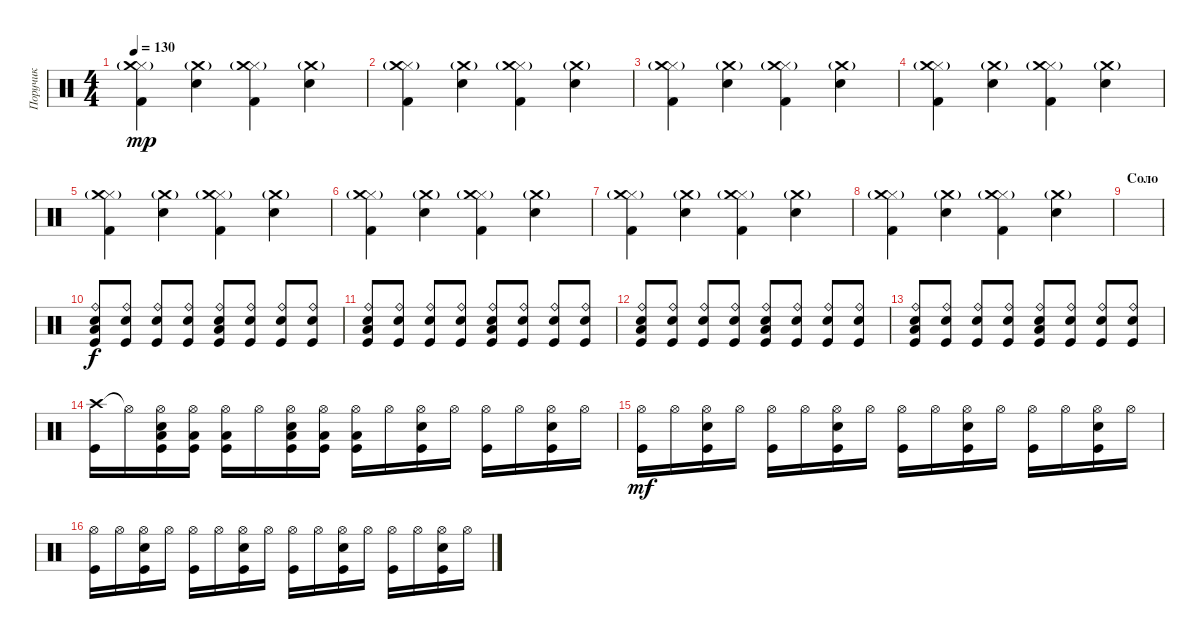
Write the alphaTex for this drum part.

\track ("Поручик" "Поручик") {instrument percussion}
\staff {score}
\articulation defaults
\ts (4 4)
\tempo 130
\clef neutral
\ks c
("Kick (hit) 2" "Hi-Hat (closed)" "Crash medium (hit)"{g}).4{dy mp} ("Snare (hit) 2" "Crash medium (hit)"{g}).4 ("Kick (hit) 2" "Hi-Hat (closed)" "Crash medium (hit)"{g}).4 ("Snare (hit) 2" "Crash medium (hit)"{g}).4 |
("Kick (hit) 2" "Hi-Hat (closed)" "Crash medium (hit)"{g}).4 ("Snare (hit) 2" "Crash medium (hit)"{g}).4 ("Kick (hit) 2" "Hi-Hat (closed)" "Crash medium (hit)"{g}).4 ("Snare (hit) 2" "Crash medium (hit)"{g}).4 |
("Kick (hit) 2" "Hi-Hat (closed)" "Crash medium (hit)"{g}).4 ("Snare (hit) 2" "Crash medium (hit)"{g}).4 ("Kick (hit) 2" "Hi-Hat (closed)" "Crash medium (hit)"{g}).4 ("Snare (hit) 2" "Crash medium (hit)"{g}).4 |
("Kick (hit) 2" "Hi-Hat (closed)" "Crash medium (hit)"{g}).4 ("Snare (hit) 2" "Crash medium (hit)"{g}).4 ("Kick (hit) 2" "Hi-Hat (closed)" "Crash medium (hit)"{g}).4 ("Snare (hit) 2" "Crash medium (hit)"{g}).4 |
("Kick (hit) 2" "Hi-Hat (closed)" "Crash medium (hit)"{g}).4 ("Snare (hit) 2" "Crash medium (hit)"{g}).4 ("Kick (hit) 2" "Hi-Hat (closed)" "Crash medium (hit)"{g}).4 ("Snare (hit) 2" "Crash medium (hit)"{g}).4 |
("Kick (hit) 2" "Hi-Hat (closed)" "Crash medium (hit)"{g}).4 ("Snare (hit) 2" "Crash medium (hit)"{g}).4 ("Kick (hit) 2" "Hi-Hat (closed)" "Crash medium (hit)"{g}).4 ("Snare (hit) 2" "Crash medium (hit)"{g}).4 |
("Kick (hit) 2" "Hi-Hat (closed)" "Crash medium (hit)"{g}).4 ("Snare (hit) 2" "Crash medium (hit)"{g}).4 ("Kick (hit) 2" "Hi-Hat (closed)" "Crash medium (hit)"{g}).4 ("Snare (hit) 2" "Crash medium (hit)"{g}).4 |
("Kick (hit) 2" "Hi-Hat (closed)" "Crash medium (hit)"{g}).4 ("Snare (hit) 2" "Crash medium (hit)"{g}).4 ("Kick (hit) 2" "Hi-Hat (closed)" "Crash medium (hit)"{g}).4 ("Snare (hit) 2" "Crash medium (hit)"{g}).4 |
\section ("" "Соло")
|
("Ride (bell)" "Snare (hit) 2" "Low Tom (hit)" "Kick (hit)").8{dy f} ("Ride (bell)" "Snare (hit) 2" "Kick (hit)").8 ("Ride (bell)" "Snare (hit) 2" "Kick (hit)").8 ("Ride (bell)" "Snare (hit) 2" "Kick (hit)").8 ("Ride (bell)" "Snare (hit) 2" "Low Tom (hit)" "Kick (hit)").8 ("Ride (bell)" "Snare (hit) 2" "Kick (hit)").8 ("Ride (bell)" "Snare (hit) 2" "Kick (hit)").8 ("Ride (bell)" "Snare (hit) 2" "Kick (hit)").8 |
("Ride (bell)" "Snare (hit) 2" "Low Tom (hit)" "Kick (hit)").8 ("Ride (bell)" "Snare (hit) 2" "Kick (hit)").8 ("Ride (bell)" "Snare (hit) 2" "Kick (hit)").8 ("Ride (bell)" "Snare (hit) 2" "Kick (hit)").8 ("Ride (bell)" "Snare (hit) 2" "Low Tom (hit)" "Kick (hit)").8 ("Ride (bell)" "Snare (hit) 2" "Kick (hit)").8 ("Ride (bell)" "Snare (hit) 2" "Kick (hit)").8 ("Ride (bell)" "Snare (hit) 2" "Kick (hit)").8 |
("Ride (bell)" "Snare (hit) 2" "Low Tom (hit)" "Kick (hit)").8 ("Ride (bell)" "Snare (hit) 2" "Kick (hit)").8 ("Ride (bell)" "Snare (hit) 2" "Kick (hit)").8 ("Ride (bell)" "Snare (hit) 2" "Kick (hit)").8 ("Ride (bell)" "Snare (hit) 2" "Low Tom (hit)" "Kick (hit)").8 ("Ride (bell)" "Snare (hit) 2" "Kick (hit)").8 ("Ride (bell)" "Snare (hit) 2" "Kick (hit)").8 ("Ride (bell)" "Snare (hit) 2" "Kick (hit)").8 |
("Ride (bell)" "Snare (hit) 2" "Low Tom (hit)" "Kick (hit)").8 ("Ride (bell)" "Snare (hit) 2" "Kick (hit)").8 ("Ride (bell)" "Snare (hit) 2" "Kick (hit)").8 ("Ride (bell)" "Snare (hit) 2" "Kick (hit)").8 ("Ride (bell)" "Snare (hit) 2" "Low Tom (hit)" "Kick (hit)").8 ("Ride (bell)" "Snare (hit) 2" "Kick (hit)").8 ("Ride (bell)" "Snare (hit) 2" "Kick (hit)").8 ("Ride (bell)" "Snare (hit) 2" "Kick (hit)").8 |
("Crash high (hit)" "Kick (hit)").16 "Hi-Hat (open)"{t}.16 ("Hi-Hat (open)" "Snare (hit) 2" "Low Tom (hit)" "Kick (hit)").16 ("Hi-Hat (open)" "Low Tom (hit)" "Kick (hit)").16 ("Hi-Hat (open)" "Low Tom (hit)" "Kick (hit)").16 "Hi-Hat (open)".16 ("Hi-Hat (open)" "Snare (hit) 2" "Low Tom (hit)" "Kick (hit)").16 ("Hi-Hat (open)" "Low Tom (hit)" "Kick (hit)").16 ("Hi-Hat (open)" "Low Tom (hit)" "Kick (hit)").16 "Hi-Hat (open)".16 ("Hi-Hat (open)" "Snare (hit) 2" "Kick (hit)").16 "Hi-Hat (open)".16 ("Hi-Hat (open)" "Kick (hit)").16 "Hi-Hat (open)".16 ("Hi-Hat (open)" "Snare (hit) 2" "Kick (hit)").16 "Hi-Hat (open)".16 |
("Hi-Hat (open)" "Kick (hit)").16{dy mf} "Hi-Hat (open)".16 ("Hi-Hat (open)" "Snare (hit) 2" "Kick (hit)").16 "Hi-Hat (open)".16 ("Hi-Hat (open)" "Kick (hit)").16 "Hi-Hat (open)".16 ("Hi-Hat (open)" "Snare (hit) 2" "Kick (hit)").16 "Hi-Hat (open)".16 ("Hi-Hat (open)" "Kick (hit)").16 "Hi-Hat (open)".16 ("Hi-Hat (open)" "Snare (hit) 2" "Kick (hit)").16 "Hi-Hat (open)".16 ("Hi-Hat (open)" "Kick (hit)").16 "Hi-Hat (open)".16 ("Hi-Hat (open)" "Snare (hit) 2" "Kick (hit)").16 "Hi-Hat (open)".16 |
("Hi-Hat (open)" "Kick (hit)").16 "Hi-Hat (open)".16 ("Hi-Hat (open)" "Snare (hit) 2" "Kick (hit)").16 "Hi-Hat (open)".16 ("Hi-Hat (open)" "Kick (hit)").16 "Hi-Hat (open)".16 ("Hi-Hat (open)" "Snare (hit) 2" "Kick (hit)").16 "Hi-Hat (open)".16 ("Hi-Hat (open)" "Kick (hit)").16 "Hi-Hat (open)".16 ("Hi-Hat (open)" "Snare (hit) 2" "Kick (hit)").16 "Hi-Hat (open)".16 ("Hi-Hat (open)" "Kick (hit)").16 "Hi-Hat (open)".16 ("Hi-Hat (open)" "Snare (hit) 2" "Kick (hit)").16 "Hi-Hat (open)".16
